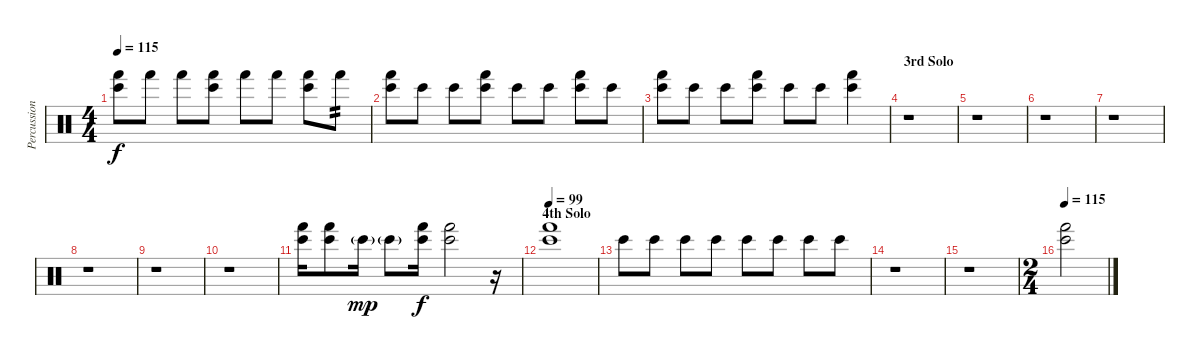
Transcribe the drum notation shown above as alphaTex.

\track ("Percussions" "Percussion") {instrument percussion}
\staff {score}
\articulation defaults
\ts (4 4)
\tempo 115
\clef neutral
\ks c
("Bongo High (hit)" "Hand (hit)").8{dy f} "Hand (hit)".8 "Hand (hit)".8 ("Bongo High (hit)" "Hand (hit)").8 "Hand (hit)".8 "Hand (hit)".8 ("Bongo High (hit)" "Hand (hit)").8 "Hand (hit)".8{tp 2} |
("Bongo High (hit)" "Hand (hit)").8 "Bongo High (hit)".8 "Bongo High (hit)".8 ("Bongo High (hit)" "Hand (hit)").8 "Bongo High (hit)".8 "Bongo High (hit)".8 ("Bongo High (hit)" "Hand (hit)").8 "Bongo High (hit)".8 |
("Bongo High (hit)" "Hand (hit)").8 "Bongo High (hit)".8 "Bongo High (hit)".8 ("Bongo High (hit)" "Hand (hit)").8 "Bongo High (hit)".8 "Bongo High (hit)".8 ("Bongo High (hit)" "Hand (hit)").4 |
\section ("" "3rd Solo")
r.1 |
r.1 |
r.1 |
r.1 |
r.1 |
r.1 |
r.1 |
("Bongo High (hit)" "Hand (hit)").16 ("Bongo High (hit)" "Hand (hit)").8 "Bongo High (hit)"{g}.16{dy mp} "Bongo High (hit)"{g}.8 ("Bongo High (hit)" "Hand (hit)").16{dy f} ("Bongo High (hit)" "Hand (hit)").2 r.16 |
\section ("" "4th Solo")
\tempo 99
("Bongo High (hit)" "Hand (hit)").1 |
"Bongo High (hit)".8 "Bongo High (hit)".8 "Bongo High (hit)".8 "Bongo High (hit)".8 "Bongo High (hit)".8 "Bongo High (hit)".8 "Bongo High (hit)".8 "Bongo High (hit)".8 |
r.1 |
r.1 |
\ts (2 4)
\tempo 115
("Bongo High (hit)" "Hand (hit)").2
